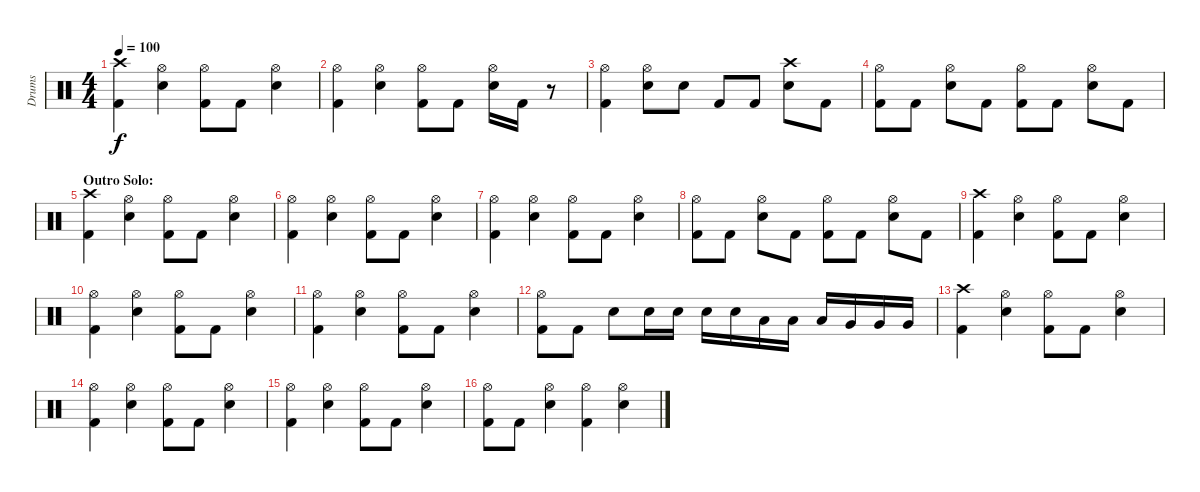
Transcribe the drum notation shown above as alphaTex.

\track ("Drums" "Drums") {instrument percussion}
\staff {score}
\articulation defaults
\ts (4 4)
\tempo 100
\clef neutral
\ks c
("Crash high (hit)" "Kick (hit) 2").4{dy f} ("Hi-Hat (open)" "Electric Snare (hit)").4 ("Hi-Hat (open)" "Kick (hit) 2").8 "Kick (hit) 2".8 ("Hi-Hat (open)" "Electric Snare (hit)").4 |
("Hi-Hat (open)" "Kick (hit) 2").4 ("Hi-Hat (open)" "Electric Snare (hit)").4 ("Hi-Hat (open)" "Kick (hit) 2").8 "Kick (hit) 2".8 ("Hi-Hat (open)" "Electric Snare (hit)").16 "Kick (hit) 2".16 r.8 |
("Hi-Hat (open)" "Kick (hit) 2").4 ("Hi-Hat (open)" "Electric Snare (hit)").8 "Electric Snare (hit)".8 "Kick (hit) 2".8 "Kick (hit) 2".8 ("Crash high (hit)" "Electric Snare (hit)").8 "Kick (hit) 2".8 |
("Hi-Hat (open)" "Kick (hit) 2").8 "Kick (hit) 2".8 ("Hi-Hat (open)" "Electric Snare (hit)").8 "Kick (hit) 2".8 ("Hi-Hat (open)" "Kick (hit) 2").8 "Kick (hit) 2".8 ("Hi-Hat (open)" "Electric Snare (hit)").8 "Kick (hit) 2".8 |
\section ("" "Outro Solo:")
("Crash high (hit)" "Kick (hit) 2").4 ("Hi-Hat (open)" "Electric Snare (hit)").4 ("Hi-Hat (open)" "Kick (hit) 2").8 "Kick (hit) 2".8 ("Hi-Hat (open)" "Electric Snare (hit)").4 |
("Hi-Hat (open)" "Kick (hit) 2").4 ("Hi-Hat (open)" "Electric Snare (hit)").4 ("Hi-Hat (open)" "Kick (hit) 2").8 "Kick (hit) 2".8 ("Hi-Hat (open)" "Electric Snare (hit)").4 |
("Hi-Hat (open)" "Kick (hit) 2").4 ("Hi-Hat (open)" "Electric Snare (hit)").4 ("Hi-Hat (open)" "Kick (hit) 2").8 "Kick (hit) 2".8 ("Hi-Hat (open)" "Electric Snare (hit)").4 |
("Hi-Hat (open)" "Kick (hit) 2").8 "Kick (hit) 2".8 ("Hi-Hat (open)" "Electric Snare (hit)").8 "Kick (hit) 2".8 ("Hi-Hat (open)" "Kick (hit) 2").8 "Kick (hit) 2".8 ("Hi-Hat (open)" "Electric Snare (hit)").8 "Kick (hit) 2".8 |
("Crash high (hit)" "Kick (hit) 2").4 ("Hi-Hat (open)" "Electric Snare (hit)").4 ("Hi-Hat (open)" "Kick (hit) 2").8 "Kick (hit) 2".8 ("Hi-Hat (open)" "Electric Snare (hit)").4 |
("Hi-Hat (open)" "Kick (hit) 2").4 ("Hi-Hat (open)" "Electric Snare (hit)").4 ("Hi-Hat (open)" "Kick (hit) 2").8 "Kick (hit) 2".8 ("Hi-Hat (open)" "Electric Snare (hit)").4 |
("Hi-Hat (open)" "Kick (hit) 2").4 ("Hi-Hat (open)" "Electric Snare (hit)").4 ("Hi-Hat (open)" "Kick (hit) 2").8 "Kick (hit) 2".8 ("Hi-Hat (open)" "Electric Snare (hit)").4 |
("Hi-Hat (open)" "Kick (hit) 2").8 "Kick (hit) 2".8 "Electric Snare (hit)".8 "Electric Snare (hit)".16 "Electric Snare (hit)".16 "Electric Snare (hit)".16 "Electric Snare (hit)".16 "Low Tom (hit)".16 "Low Tom (hit)".16 "Low Tom (hit)".16 "Very Low Tom (hit)".16 "Very Low Tom (hit)".16 "Very Low Tom (hit)".16 |
("Crash high (hit)" "Kick (hit) 2").4 ("Hi-Hat (open)" "Electric Snare (hit)").4 ("Hi-Hat (open)" "Kick (hit) 2").8 "Kick (hit) 2".8 ("Hi-Hat (open)" "Electric Snare (hit)").4 |
("Hi-Hat (open)" "Kick (hit) 2").4 ("Hi-Hat (open)" "Electric Snare (hit)").4 ("Hi-Hat (open)" "Kick (hit) 2").8 "Kick (hit) 2".8 ("Hi-Hat (open)" "Electric Snare (hit)").4 |
("Hi-Hat (open)" "Kick (hit) 2").4 ("Hi-Hat (open)" "Electric Snare (hit)").4 ("Hi-Hat (open)" "Kick (hit) 2").8 "Kick (hit) 2".8 ("Hi-Hat (open)" "Electric Snare (hit)").4 |
("Hi-Hat (open)" "Kick (hit) 2").8 "Kick (hit) 2".8 ("Hi-Hat (open)" "Electric Snare (hit)").4 ("Hi-Hat (open)" "Kick (hit) 2").4 ("Hi-Hat (open)" "Electric Snare (hit)").4
